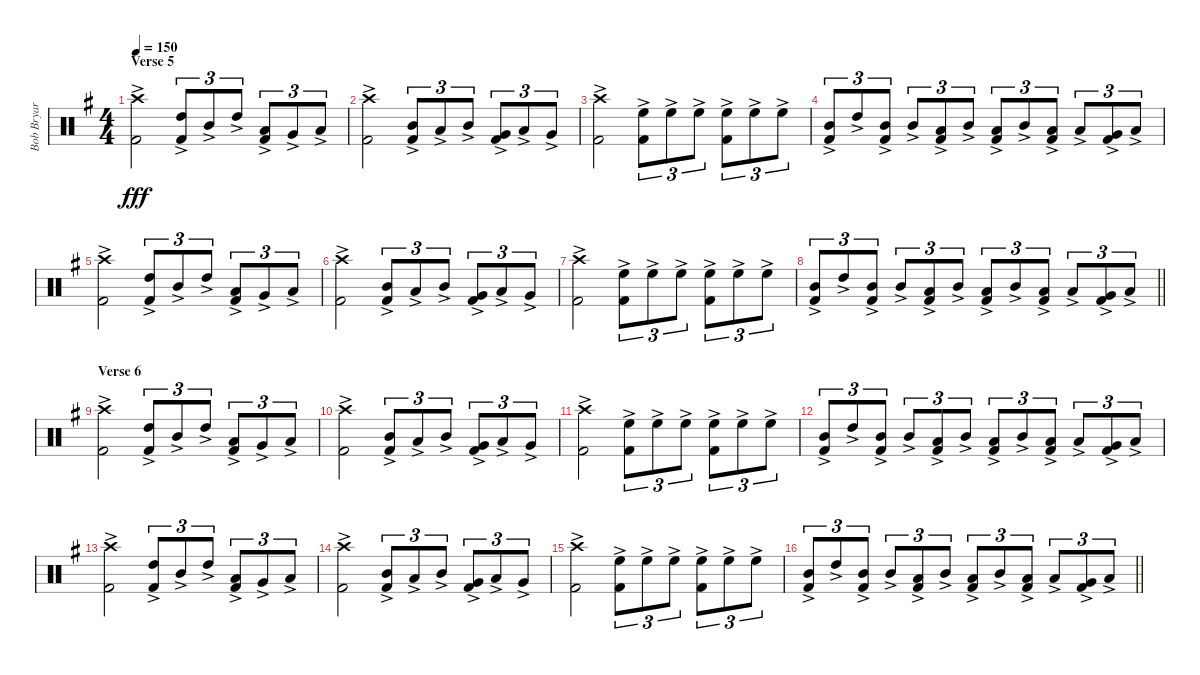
\track ("Bob Bryar (percussion)" "Bob Bryar ") {instrument percussion}
\staff {score}
\articulation defaults
\ts (4 4)
\section ("" "Verse 5")
\tempo 150
\clef neutral
\ks eminor
("Crash high (hit)"{ac} "Kick (hit) 2"{ac}).2{dy fff} ("High Tom (hit)"{ac} "Kick (hit) 2"{ac}).8{tu (3 2)} "Mid Tom (hit)"{ac}.8{tu (3 2)} "High Tom (hit)"{ac}.8{tu (3 2)} ("Low Tom (hit)"{ac} "Kick (hit) 2"{ac}).8{tu (3 2)} "Very Low Tom (hit)"{ac}.8{tu (3 2)} "Low Tom (hit)"{ac}.8{tu (3 2)} |
("Crash high (hit)"{ac} "Kick (hit) 2"{ac}).2 ("Mid Tom (hit)"{ac} "Kick (hit) 2"{ac}).8{tu (3 2)} "Low Tom (hit)"{ac}.8{tu (3 2)} "Mid Tom (hit)"{ac}.8{tu (3 2)} ("Very Low Tom (hit)"{ac} "Kick (hit) 2"{ac}).8{tu (3 2)} "Low Tom (hit)"{ac}.8{tu (3 2)} "Very Low Tom (hit)"{ac}.8{tu (3 2)} |
("Crash high (hit)"{ac} "Kick (hit) 2"{ac}).2 ("High Floor Tom (hit)"{ac} "Kick (hit) 2"{ac}).8{tu (3 2)} "High Floor Tom (hit)"{ac}.8{tu (3 2)} "High Floor Tom (hit)"{ac}.8{tu (3 2)} ("High Floor Tom (hit)"{ac} "Kick (hit) 2"{ac}).8{tu (3 2)} "High Floor Tom (hit)"{ac}.8{tu (3 2)} "High Floor Tom (hit)"{ac}.8{tu (3 2)} |
("Mid Tom (hit)"{ac} "Kick (hit) 2"{ac}).8{tu (3 2)} "High Tom (hit)"{ac}.8{tu (3 2)} ("Mid Tom (hit)"{ac} "Kick (hit) 2"{ac}).8{tu (3 2)} "Mid Tom (hit)"{ac}.8{tu (3 2)} ("Low Tom (hit)"{ac} "Kick (hit) 2"{ac}).8{tu (3 2)} "Mid Tom (hit)"{ac}.8{tu (3 2)} ("Low Tom (hit)"{ac} "Kick (hit) 2"{ac}).8{tu (3 2)} "Mid Tom (hit)"{ac}.8{tu (3 2)} ("Low Tom (hit)"{ac} "Kick (hit) 2"{ac}).8{tu (3 2)} "Low Tom (hit)"{ac}.8{tu (3 2)} ("Very Low Tom (hit)"{ac} "Kick (hit) 2"{ac}).8{tu (3 2)} "Low Tom (hit)"{ac}.8{tu (3 2)} |
("Crash high (hit)"{ac} "Kick (hit) 2"{ac}).2 ("High Tom (hit)"{ac} "Kick (hit) 2"{ac}).8{tu (3 2)} "Mid Tom (hit)"{ac}.8{tu (3 2)} "High Tom (hit)"{ac}.8{tu (3 2)} ("Low Tom (hit)"{ac} "Kick (hit) 2"{ac}).8{tu (3 2)} "Very Low Tom (hit)"{ac}.8{tu (3 2)} "Low Tom (hit)"{ac}.8{tu (3 2)} |
("Crash high (hit)"{ac} "Kick (hit) 2"{ac}).2 ("Mid Tom (hit)"{ac} "Kick (hit) 2"{ac}).8{tu (3 2)} "Low Tom (hit)"{ac}.8{tu (3 2)} "Mid Tom (hit)"{ac}.8{tu (3 2)} ("Very Low Tom (hit)"{ac} "Kick (hit) 2"{ac}).8{tu (3 2)} "Low Tom (hit)"{ac}.8{tu (3 2)} "Very Low Tom (hit)"{ac}.8{tu (3 2)} |
("Crash high (hit)"{ac} "Kick (hit) 2"{ac}).2 ("High Floor Tom (hit)"{ac} "Kick (hit) 2"{ac}).8{tu (3 2)} "High Floor Tom (hit)"{ac}.8{tu (3 2)} "High Floor Tom (hit)"{ac}.8{tu (3 2)} ("High Floor Tom (hit)"{ac} "Kick (hit) 2"{ac}).8{tu (3 2)} "High Floor Tom (hit)"{ac}.8{tu (3 2)} "High Floor Tom (hit)"{ac}.8{tu (3 2)} |
\barLineRight lightlight
("Mid Tom (hit)"{ac} "Kick (hit) 2"{ac}).8{tu (3 2)} "High Tom (hit)"{ac}.8{tu (3 2)} ("Mid Tom (hit)"{ac} "Kick (hit) 2"{ac}).8{tu (3 2)} "Mid Tom (hit)"{ac}.8{tu (3 2)} ("Low Tom (hit)"{ac} "Kick (hit) 2"{ac}).8{tu (3 2)} "Mid Tom (hit)"{ac}.8{tu (3 2)} ("Low Tom (hit)"{ac} "Kick (hit) 2"{ac}).8{tu (3 2)} "Mid Tom (hit)"{ac}.8{tu (3 2)} ("Low Tom (hit)"{ac} "Kick (hit) 2"{ac}).8{tu (3 2)} "Low Tom (hit)"{ac}.8{tu (3 2)} ("Very Low Tom (hit)"{ac} "Kick (hit) 2"{ac}).8{tu (3 2)} "Low Tom (hit)"{ac}.8{tu (3 2)} |
\section ("" "Verse 6")
("Crash high (hit)"{ac} "Kick (hit) 2"{ac}).2 ("High Tom (hit)"{ac} "Kick (hit) 2"{ac}).8{tu (3 2)} "Mid Tom (hit)"{ac}.8{tu (3 2)} "High Tom (hit)"{ac}.8{tu (3 2)} ("Low Tom (hit)"{ac} "Kick (hit) 2"{ac}).8{tu (3 2)} "Very Low Tom (hit)"{ac}.8{tu (3 2)} "Low Tom (hit)"{ac}.8{tu (3 2)} |
("Crash high (hit)"{ac} "Kick (hit) 2"{ac}).2 ("Mid Tom (hit)"{ac} "Kick (hit) 2"{ac}).8{tu (3 2)} "Low Tom (hit)"{ac}.8{tu (3 2)} "Mid Tom (hit)"{ac}.8{tu (3 2)} ("Very Low Tom (hit)"{ac} "Kick (hit) 2"{ac}).8{tu (3 2)} "Low Tom (hit)"{ac}.8{tu (3 2)} "Very Low Tom (hit)"{ac}.8{tu (3 2)} |
("Crash high (hit)"{ac} "Kick (hit) 2"{ac}).2 ("High Floor Tom (hit)"{ac} "Kick (hit) 2"{ac}).8{tu (3 2)} "High Floor Tom (hit)"{ac}.8{tu (3 2)} "High Floor Tom (hit)"{ac}.8{tu (3 2)} ("High Floor Tom (hit)"{ac} "Kick (hit) 2"{ac}).8{tu (3 2)} "High Floor Tom (hit)"{ac}.8{tu (3 2)} "High Floor Tom (hit)"{ac}.8{tu (3 2)} |
("Mid Tom (hit)"{ac} "Kick (hit) 2"{ac}).8{tu (3 2)} "High Tom (hit)"{ac}.8{tu (3 2)} ("Mid Tom (hit)"{ac} "Kick (hit) 2"{ac}).8{tu (3 2)} "Mid Tom (hit)"{ac}.8{tu (3 2)} ("Low Tom (hit)"{ac} "Kick (hit) 2"{ac}).8{tu (3 2)} "Mid Tom (hit)"{ac}.8{tu (3 2)} ("Low Tom (hit)"{ac} "Kick (hit) 2"{ac}).8{tu (3 2)} "Mid Tom (hit)"{ac}.8{tu (3 2)} ("Low Tom (hit)"{ac} "Kick (hit) 2"{ac}).8{tu (3 2)} "Low Tom (hit)"{ac}.8{tu (3 2)} ("Very Low Tom (hit)"{ac} "Kick (hit) 2"{ac}).8{tu (3 2)} "Low Tom (hit)"{ac}.8{tu (3 2)} |
("Crash high (hit)"{ac} "Kick (hit) 2"{ac}).2 ("High Tom (hit)"{ac} "Kick (hit) 2"{ac}).8{tu (3 2)} "Mid Tom (hit)"{ac}.8{tu (3 2)} "High Tom (hit)"{ac}.8{tu (3 2)} ("Low Tom (hit)"{ac} "Kick (hit) 2"{ac}).8{tu (3 2)} "Very Low Tom (hit)"{ac}.8{tu (3 2)} "Low Tom (hit)"{ac}.8{tu (3 2)} |
("Crash high (hit)"{ac} "Kick (hit) 2"{ac}).2 ("Mid Tom (hit)"{ac} "Kick (hit) 2"{ac}).8{tu (3 2)} "Low Tom (hit)"{ac}.8{tu (3 2)} "Mid Tom (hit)"{ac}.8{tu (3 2)} ("Very Low Tom (hit)"{ac} "Kick (hit) 2"{ac}).8{tu (3 2)} "Low Tom (hit)"{ac}.8{tu (3 2)} "Very Low Tom (hit)"{ac}.8{tu (3 2)} |
("Crash high (hit)"{ac} "Kick (hit) 2"{ac}).2 ("High Floor Tom (hit)"{ac} "Kick (hit) 2"{ac}).8{tu (3 2)} "High Floor Tom (hit)"{ac}.8{tu (3 2)} "High Floor Tom (hit)"{ac}.8{tu (3 2)} ("High Floor Tom (hit)"{ac} "Kick (hit) 2"{ac}).8{tu (3 2)} "High Floor Tom (hit)"{ac}.8{tu (3 2)} "High Floor Tom (hit)"{ac}.8{tu (3 2)} |
\barLineRight lightlight
("Mid Tom (hit)"{ac} "Kick (hit) 2"{ac}).8{tu (3 2)} "High Tom (hit)"{ac}.8{tu (3 2)} ("Mid Tom (hit)"{ac} "Kick (hit) 2"{ac}).8{tu (3 2)} "Mid Tom (hit)"{ac}.8{tu (3 2)} ("Low Tom (hit)"{ac} "Kick (hit) 2"{ac}).8{tu (3 2)} "Mid Tom (hit)"{ac}.8{tu (3 2)} ("Low Tom (hit)"{ac} "Kick (hit) 2"{ac}).8{tu (3 2)} "Mid Tom (hit)"{ac}.8{tu (3 2)} ("Low Tom (hit)"{ac} "Kick (hit) 2"{ac}).8{tu (3 2)} "Low Tom (hit)"{ac}.8{tu (3 2)} ("Very Low Tom (hit)"{ac} "Kick (hit) 2"{ac}).8{tu (3 2)} "Low Tom (hit)"{ac}.8{tu (3 2)}
